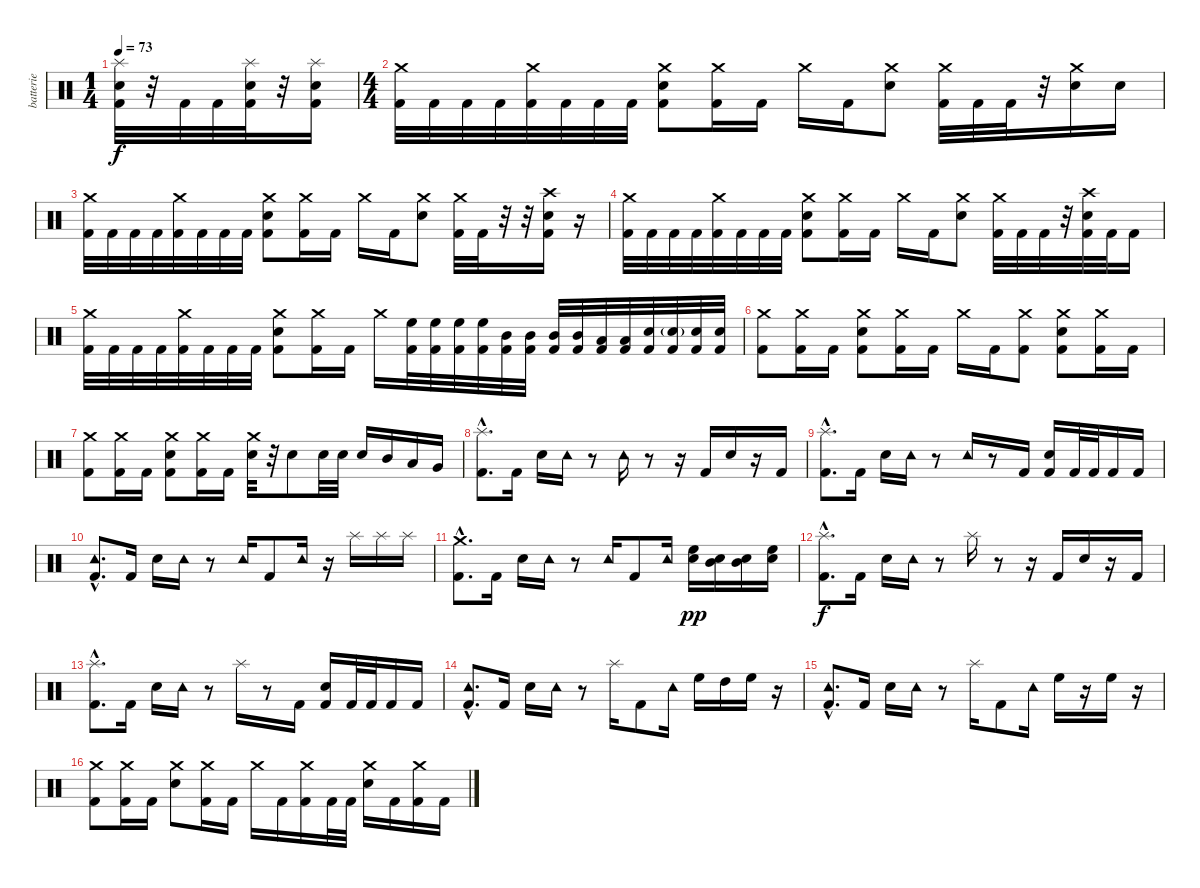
\track ("batterie" "batterie") {instrument percussion}
\staff {score}
\articulation defaults
\ts (1 4)
\tempo 73
\clef neutral
\ks c
("Splash (hit)" "Electric Snare (hit)" "Kick (hit) 2").32{dy f} r.32 "Kick (hit) 2".32 "Kick (hit) 2".32 ("Splash (hit)" "Electric Snare (hit)" "Kick (hit) 2").32 r.32 ("Splash (hit)" "Electric Snare (hit)" "Kick (hit) 2").16 |
\ts (4 4)
("Crash medium (hit)" "Kick (hit) 2").32 "Kick (hit) 2".32 "Kick (hit) 2".32 "Kick (hit) 2".32 ("Crash medium (hit)" "Kick (hit) 2").32 "Kick (hit) 2".32 "Kick (hit) 2".32 "Kick (hit) 2".32 ("Crash medium (hit)" "Electric Snare (hit)" "Kick (hit) 2").8 ("Crash medium (hit)" "Kick (hit) 2").16 "Kick (hit) 2".16 "Crash medium (hit)".16 "Kick (hit) 2".16 ("Crash medium (hit)" "Electric Snare (hit)").8 ("Crash medium (hit)" "Kick (hit) 2").32 "Kick (hit) 2".32 "Kick (hit) 2".32 r.32 ("Crash medium (hit)" "Electric Snare (hit)").16 "Electric Snare (hit)".16 |
("Crash medium (hit)" "Kick (hit) 2").32 "Kick (hit) 2".32 "Kick (hit) 2".32 "Kick (hit) 2".32 ("Crash medium (hit)" "Kick (hit) 2").32 "Kick (hit) 2".32 "Kick (hit) 2".32 "Kick (hit) 2".32 ("Crash medium (hit)" "Electric Snare (hit)" "Kick (hit) 2").8 ("Crash medium (hit)" "Kick (hit) 2").16 "Kick (hit) 2".16 "Crash medium (hit)".16 "Kick (hit) 2".16 ("Crash medium (hit)" "Electric Snare (hit)").8 ("Crash medium (hit)" "Kick (hit) 2").32 "Kick (hit) 2".32 r.32 r.32 ("Crash high (hit)" "Electric Snare (hit)" "Kick (hit) 2").16 r.16 |
("Crash medium (hit)" "Kick (hit) 2").32 "Kick (hit) 2".32 "Kick (hit) 2".32 "Kick (hit) 2".32 ("Crash medium (hit)" "Kick (hit) 2").32 "Kick (hit) 2".32 "Kick (hit) 2".32 "Kick (hit) 2".32 ("Crash medium (hit)" "Electric Snare (hit)" "Kick (hit) 2").8 ("Crash medium (hit)" "Kick (hit) 2").16 "Kick (hit) 2".16 "Crash medium (hit)".16 "Kick (hit) 2".16 ("Crash medium (hit)" "Electric Snare (hit)").8 ("Crash medium (hit)" "Kick (hit) 2").32 "Kick (hit) 2".32 "Kick (hit) 2".32 r.32 ("Crash high (hit)" "Electric Snare (hit)" "Kick (hit) 2").32 "Kick (hit) 2".32 "Kick (hit) 2".16 |
("Crash medium (hit)" "Kick (hit) 2").32 "Kick (hit) 2".32 "Kick (hit) 2".32 "Kick (hit) 2".32 ("Crash medium (hit)" "Kick (hit) 2").32 "Kick (hit) 2".32 "Kick (hit) 2".32 "Kick (hit) 2".32 ("Crash medium (hit)" "Electric Snare (hit)" "Kick (hit) 2").8 ("Crash medium (hit)" "Kick (hit) 2").16 "Kick (hit) 2".16 "Crash medium (hit)".16 ("High Floor Tom (hit)" "Kick (hit) 2").32 ("High Floor Tom (hit)" "Kick (hit) 2").32 ("High Floor Tom (hit)" "Kick (hit) 2").32 ("High Floor Tom (hit)" "Kick (hit) 2").32 ("Mid Tom (hit)" "Kick (hit) 2").32 ("Mid Tom (hit)" "Kick (hit) 2").32 ("Mid Tom (hit)" "Kick (hit) 2").32 ("Mid Tom (hit)" "Kick (hit) 2").32 ("Low Tom (hit)" "Kick (hit) 2").32 ("Low Tom (hit)" "Kick (hit) 2").32 ("Snare (hit) 2" "Kick (hit) 2").32 ("Snare (hit) 2"{g} "Kick (hit) 2").32 ("Snare (hit) 2" "Kick (hit) 2").32 ("Snare (hit) 2" "Kick (hit) 2").32 |
("Crash medium (hit)" "Kick (hit) 2").8 ("Crash medium (hit)" "Kick (hit) 2").16 "Kick (hit) 2".16 ("Crash medium (hit)" "Electric Snare (hit)" "Kick (hit) 2").8 ("Crash medium (hit)" "Kick (hit) 2").16 "Kick (hit) 2".16 "Crash medium (hit)".16 "Kick (hit) 2".16 ("Crash medium (hit)" "Kick (hit) 2").8 ("Crash medium (hit)" "Electric Snare (hit)" "Kick (hit) 2").8 ("Crash medium (hit)" "Kick (hit) 2").16 "Kick (hit) 2".16 |
("Crash medium (hit)" "Kick (hit) 2").8 ("Crash medium (hit)" "Kick (hit) 2").16 "Kick (hit) 2".16 ("Crash medium (hit)" "Electric Snare (hit)" "Kick (hit) 2").8 ("Crash medium (hit)" "Kick (hit) 2").16 "Kick (hit) 2".16 ("Crash medium (hit)" "Snare (hit) 2").32 r.32 "Electric Snare (hit)".8 "Snare (hit) 2".32 "Snare (hit) 2".32 "Electric Snare (hit)".16 "Mid Tom (hit)".16 "Low Tom (hit)".16 "Very Low Tom (hit)".16 |
("Splash (hit)"{hac} "Kick (hit) 2"{hac}).8{d} "Kick (hit) 2".16 "Electric Snare (hit)".16 "Tambourine (hit)".16 r.8 "Tambourine (hit)".16 r.8 r.16 "Kick (hit) 2".16 "Electric Snare (hit)".16 r.16 "Kick (hit) 2".16 |
("Splash (hit)"{hac} "Kick (hit) 2"{hac}).8{d} "Kick (hit) 2".16 "Electric Snare (hit)".16 "Tambourine (hit)".16 r.8 "Tambourine (hit)".16 r.8 "Kick (hit) 2".16 ("Electric Snare (hit)" "Kick (hit) 2").16 "Kick (hit) 2".32 "Kick (hit) 2".32 "Kick (hit) 2".16 "Kick (hit) 2".16 |
("Tambourine (hit)"{hac} "Kick (hit) 2"{hac}).8{d} "Kick (hit) 2".16 "Electric Snare (hit)".16 "Tambourine (hit)".16 r.8 "Tambourine (hit)".16 "Kick (hit) 2".8 "Tambourine (hit)".16 r.16 "Splash (hit)".16 "Splash (hit)".16 "Splash (hit)".16 |
("Crash medium (hit)"{hac} "Kick (hit) 2"{hac}).8{d} "Kick (hit) 2".16 "Electric Snare (hit)".16 "Tambourine (hit)".16 r.8 "Tambourine (hit)".16 "Kick (hit) 2".8 "Tambourine (hit)".16 ("High Floor Tom (hit)" "Snare (hit) 2").16{dy pp} ("Mid Tom (hit)" "Snare (hit) 2").16 ("Mid Tom (hit)" "Snare (hit) 2").16 ("High Floor Tom (hit)" "Snare (hit) 2").16 |
("Splash (hit)"{hac} "Kick (hit) 2"{hac}).8{d dy f} "Kick (hit) 2".16 "Electric Snare (hit)".16 "Tambourine (hit)".16 r.8 "Splash (hit)".16 r.8 r.16 "Kick (hit) 2".16 "Electric Snare (hit)".16 r.16 "Kick (hit) 2".16 |
("Splash (hit)"{hac} "Kick (hit) 2"{hac}).8{d} "Kick (hit) 2".16 "Electric Snare (hit)".16 "Tambourine (hit)".16 r.8 "Splash (hit)".16 r.8 "Kick (hit) 2".16 ("Electric Snare (hit)" "Kick (hit) 2").16 "Kick (hit) 2".32 "Kick (hit) 2".32 "Kick (hit) 2".16 "Kick (hit) 2".16 |
("Tambourine (hit)"{hac} "Kick (hit) 2"{hac}).8{d} "Kick (hit) 2".16 "Electric Snare (hit)".16 "Tambourine (hit)".16 r.8 "Splash (hit)".16 "Kick (hit) 2".8 "Tambourine (hit)".16 "High Floor Tom (hit)".16 "High Tom (hit)".16 "High Floor Tom (hit)".16 r.16 |
("Tambourine (hit)"{hac} "Kick (hit) 2"{hac}).8{d} "Kick (hit) 2".16 "Electric Snare (hit)".16 "Tambourine (hit)".16 r.8 "Splash (hit)".16 "Kick (hit) 2".8 "Tambourine (hit)".16 "High Floor Tom (hit)".16 r.16 "High Floor Tom (hit)".16 r.16 |
("Crash medium (hit)" "Kick (hit) 2").8 ("Crash medium (hit)" "Kick (hit) 2").16 "Kick (hit) 2".16 ("Crash medium (hit)" "Electric Snare (hit)").8 ("Crash medium (hit)" "Kick (hit) 2").16 "Kick (hit) 2".16 "Crash medium (hit)".16 "Kick (hit) 2".16 ("Crash medium (hit)" "Kick (hit) 2").16 "Kick (hit) 2".32 "Kick (hit) 2".32 ("Crash medium (hit)" "Electric Snare (hit)").16 "Kick (hit) 2".16 ("Crash medium (hit)" "Kick (hit) 2").16 "Kick (hit) 2".16
